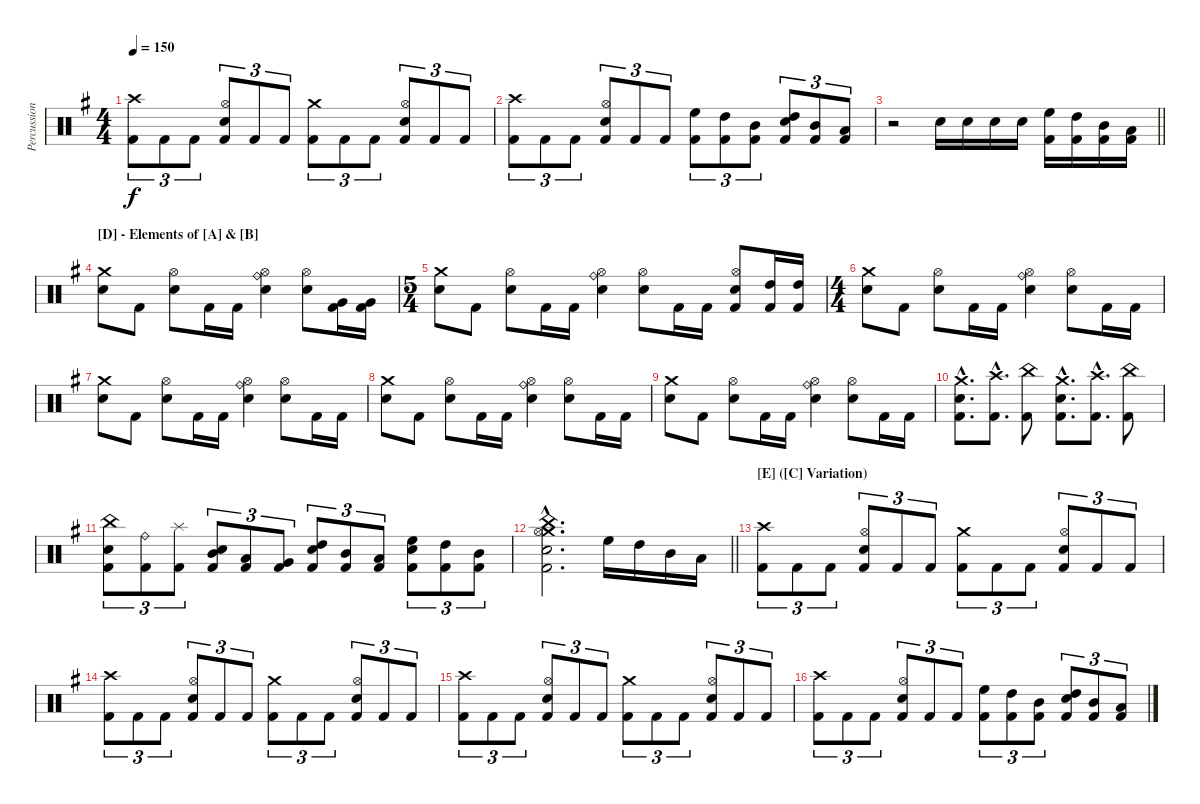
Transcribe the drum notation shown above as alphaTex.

\track ("Percussion" "Percussion") {instrument percussion}
\staff {score}
\articulation defaults
\ts (4 4)
\tempo 150
\clef neutral
\ks eminor
("Crash high (hit)" "Kick (hit) 2").8{tu (3 2) dy f} "Kick (hit) 2".8{tu (3 2)} "Kick (hit) 2".8{tu (3 2)} ("Hi-Hat (open)" "Snare (hit) 2" "Kick (hit) 2").8{tu (3 2)} "Kick (hit) 2".8{tu (3 2)} "Kick (hit) 2".8{tu (3 2)} ("Crash medium (hit)" "Kick (hit) 2").8{tu (3 2)} "Kick (hit) 2".8{tu (3 2)} "Kick (hit) 2".8{tu (3 2)} ("Hi-Hat (open)" "Snare (hit) 2" "Kick (hit) 2").8{tu (3 2)} "Kick (hit) 2".8{tu (3 2)} "Kick (hit) 2".8{tu (3 2)} |
("Crash high (hit)" "Kick (hit) 2").8{tu (3 2)} "Kick (hit) 2".8{tu (3 2)} "Kick (hit) 2".8{tu (3 2)} ("Hi-Hat (open)" "Snare (hit) 2" "Kick (hit) 2").8{tu (3 2)} "Kick (hit) 2".8{tu (3 2)} "Kick (hit) 2".8{tu (3 2)} ("High Floor Tom (hit)" "Kick (hit) 2").8{tu (3 2)} ("High Tom (hit)" "Kick (hit) 2").8{tu (3 2)} ("Mid Tom (hit)" "Kick (hit) 2").8{tu (3 2)} ("High Tom (hit)" "Snare (hit) 2" "Kick (hit) 2").8{tu (3 2)} ("Mid Tom (hit)" "Kick (hit) 2").8{tu (3 2)} ("Low Tom (hit)" "Kick (hit) 2").8{tu (3 2)} |
\barLineRight lightlight
r.2 "Snare (hit) 2".16 "Snare (hit) 2".16 "Snare (hit) 2".16 "Snare (hit) 2".16 ("High Floor Tom (hit)" "Kick (hit) 2").16 ("High Tom (hit)" "Kick (hit) 2").16 ("Mid Tom (hit)" "Kick (hit) 2").16 ("Low Tom (hit)" "Kick (hit) 2").16 |
\section ("" "[D] - Elements of [A] & [B]")
("Crash medium (hit)" "Snare (hit) 2").8 "Kick (hit) 2".8 ("Hi-Hat (open)" "Snare (hit) 2").8 "Kick (hit) 2".16 "Kick (hit) 2".16 ("Ride (bell)" "Hi-Hat (open)" "Snare (hit) 2").4 ("Hi-Hat (open)" "Snare (hit) 2").8 ("Very Low Tom (hit)" "Kick (hit) 2").16 ("Very Low Tom (hit)" "Kick (hit) 2").16 |
\ts (5 4)
("Crash medium (hit)" "Snare (hit) 2").8 "Kick (hit) 2".8 ("Hi-Hat (open)" "Snare (hit) 2").8 "Kick (hit) 2".16 "Kick (hit) 2".16 ("Ride (bell)" "Hi-Hat (open)" "Snare (hit) 2").4 ("Hi-Hat (open)" "Snare (hit) 2").8 "Kick (hit) 2".16 "Kick (hit) 2".16 ("Hi-Hat (open)" "Snare (hit) 2" "Kick (hit) 2").8 ("High Tom (hit)" "Kick (hit) 2").16 ("High Tom (hit)" "Kick (hit) 2").16 |
\ts (4 4)
("Crash medium (hit)" "Snare (hit) 2").8 "Kick (hit) 2".8 ("Hi-Hat (open)" "Snare (hit) 2").8 "Kick (hit) 2".16 "Kick (hit) 2".16 ("Ride (bell)" "Hi-Hat (open)" "Snare (hit) 2").4 ("Hi-Hat (open)" "Snare (hit) 2").8 "Kick (hit) 2".16 "Kick (hit) 2".16 |
("Crash medium (hit)" "Snare (hit) 2").8 "Kick (hit) 2".8 ("Hi-Hat (open)" "Snare (hit) 2").8 "Kick (hit) 2".16 "Kick (hit) 2".16 ("Ride (bell)" "Hi-Hat (open)" "Snare (hit) 2").4 ("Hi-Hat (open)" "Snare (hit) 2").8 "Kick (hit) 2".16 "Kick (hit) 2".16 |
("Crash medium (hit)" "Snare (hit) 2").8 "Kick (hit) 2".8 ("Hi-Hat (open)" "Snare (hit) 2").8 "Kick (hit) 2".16 "Kick (hit) 2".16 ("Ride (bell)" "Hi-Hat (open)" "Snare (hit) 2").4 ("Hi-Hat (open)" "Snare (hit) 2").8 "Kick (hit) 2".16 "Kick (hit) 2".16 |
("Crash medium (hit)" "Snare (hit) 2").8 "Kick (hit) 2".8 ("Hi-Hat (open)" "Snare (hit) 2").8 "Kick (hit) 2".16 "Kick (hit) 2".16 ("Ride (bell)" "Hi-Hat (open)" "Snare (hit) 2").4 ("Hi-Hat (open)" "Snare (hit) 2").8 "Kick (hit) 2".16 "Kick (hit) 2".16 |
("Crash medium (hit)"{hac} "Snare (hit) 2"{hac} "Kick (hit) 2"{hac}).8{d} ("Crash high (hit)"{hac} "Kick (hit) 2"{hac}).8{d} ("China (hit)" "Kick (hit) 2").8 ("Crash medium (hit)"{hac} "Snare (hit) 2"{hac} "Kick (hit) 2"{hac}).8{d} ("Crash high (hit)"{hac} "Kick (hit) 2"{hac}).8{d} ("China (hit)" "Kick (hit) 2").8 |
("China (hit)" "Snare (hit) 2" "Kick (hit) 2").8{tu (3 2)} ("Ride (bell)" "Kick (hit) 2").8{tu (3 2)} ("Splash (hit)" "Kick (hit) 2").8{tu (3 2)} ("Mid Tom (hit)" "Snare (hit) 2" "Kick (hit) 2").8{tu (3 2)} ("Low Tom (hit)" "Kick (hit) 2").8{tu (3 2)} ("Very Low Tom (hit)" "Kick (hit) 2").8{tu (3 2)} ("High Tom (hit)" "Snare (hit) 2" "Kick (hit) 2").8{tu (3 2)} ("Mid Tom (hit)" "Kick (hit) 2").8{tu (3 2)} ("Low Tom (hit)" "Kick (hit) 2").8{tu (3 2)} ("High Floor Tom (hit)" "Snare (hit) 2" "Kick (hit) 2").8{tu (3 2)} ("High Tom (hit)" "Kick (hit) 2").8{tu (3 2)} ("Mid Tom (hit)" "Kick (hit) 2").8{tu (3 2)} |
\barLineRight lightlight
("Crash medium (hit)"{hac} "China (hit)"{hac} "Hi-Hat (open)"{hac} "Snare (hit) 2"{hac} "Kick (hit) 2"{hac}).2{d} "High Floor Tom (hit)".16 "High Tom (hit)".16 "Mid Tom (hit)".16 "Low Tom (hit)".16 |
\section ("" "[E] ([C] Variation)")
("Crash high (hit)" "Kick (hit) 2").8{tu (3 2)} "Kick (hit) 2".8{tu (3 2)} "Kick (hit) 2".8{tu (3 2)} ("Hi-Hat (open)" "Snare (hit) 2" "Kick (hit) 2").8{tu (3 2)} "Kick (hit) 2".8{tu (3 2)} "Kick (hit) 2".8{tu (3 2)} ("Crash medium (hit)" "Kick (hit) 2").8{tu (3 2)} "Kick (hit) 2".8{tu (3 2)} "Kick (hit) 2".8{tu (3 2)} ("Hi-Hat (open)" "Snare (hit) 2" "Kick (hit) 2").8{tu (3 2)} "Kick (hit) 2".8{tu (3 2)} "Kick (hit) 2".8{tu (3 2)} |
("Crash high (hit)" "Kick (hit) 2").8{tu (3 2)} "Kick (hit) 2".8{tu (3 2)} "Kick (hit) 2".8{tu (3 2)} ("Hi-Hat (open)" "Snare (hit) 2" "Kick (hit) 2").8{tu (3 2)} "Kick (hit) 2".8{tu (3 2)} "Kick (hit) 2".8{tu (3 2)} ("Crash medium (hit)" "Kick (hit) 2").8{tu (3 2)} "Kick (hit) 2".8{tu (3 2)} "Kick (hit) 2".8{tu (3 2)} ("Hi-Hat (open)" "Snare (hit) 2" "Kick (hit) 2").8{tu (3 2)} "Kick (hit) 2".8{tu (3 2)} "Kick (hit) 2".8{tu (3 2)} |
("Crash high (hit)" "Kick (hit) 2").8{tu (3 2)} "Kick (hit) 2".8{tu (3 2)} "Kick (hit) 2".8{tu (3 2)} ("Hi-Hat (open)" "Snare (hit) 2" "Kick (hit) 2").8{tu (3 2)} "Kick (hit) 2".8{tu (3 2)} "Kick (hit) 2".8{tu (3 2)} ("Crash medium (hit)" "Kick (hit) 2").8{tu (3 2)} "Kick (hit) 2".8{tu (3 2)} "Kick (hit) 2".8{tu (3 2)} ("Hi-Hat (open)" "Snare (hit) 2" "Kick (hit) 2").8{tu (3 2)} "Kick (hit) 2".8{tu (3 2)} "Kick (hit) 2".8{tu (3 2)} |
("Crash high (hit)" "Kick (hit) 2").8{tu (3 2)} "Kick (hit) 2".8{tu (3 2)} "Kick (hit) 2".8{tu (3 2)} ("Hi-Hat (open)" "Snare (hit) 2" "Kick (hit) 2").8{tu (3 2)} "Kick (hit) 2".8{tu (3 2)} "Kick (hit) 2".8{tu (3 2)} ("High Floor Tom (hit)" "Kick (hit) 2").8{tu (3 2)} ("High Tom (hit)" "Kick (hit) 2").8{tu (3 2)} ("Mid Tom (hit)" "Kick (hit) 2").8{tu (3 2)} ("High Tom (hit)" "Snare (hit) 2" "Kick (hit) 2").8{tu (3 2)} ("Mid Tom (hit)" "Kick (hit) 2").8{tu (3 2)} ("Low Tom (hit)" "Kick (hit) 2").8{tu (3 2)}
